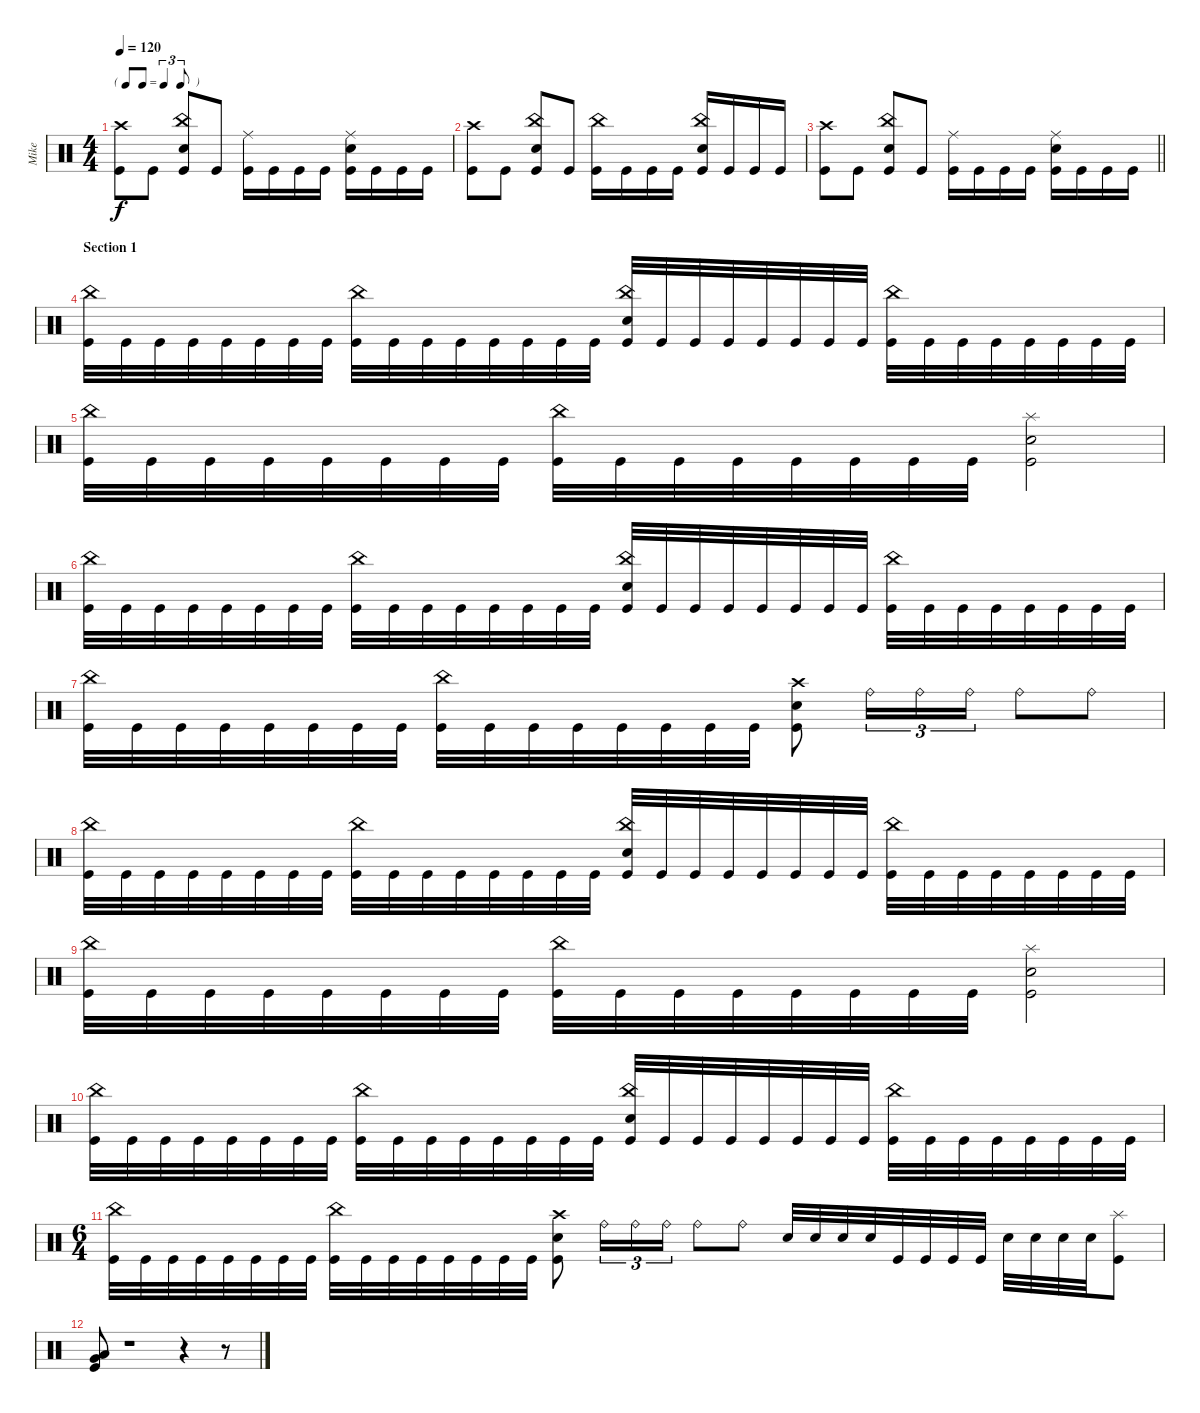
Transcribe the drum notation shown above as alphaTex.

\track ("Mike" "Mike") {instrument percussion}
\staff {score}
\articulation defaults
\ts (4 4)
\tf triplet8th
\tempo 120
\clef neutral
\ks c
("Crash high (hit)" "Kick (hit)").8{dy f} "Kick (hit)".8 ("China (hit)" "Snare (hit) 2" "Kick (hit)").8 "Kick (hit)".8 ("Ride (middle)" "Kick (hit)").16 "Kick (hit)".16 "Kick (hit)".16 "Kick (hit)".16 ("Ride (middle)" "Snare (hit) 2" "Kick (hit)").16 "Kick (hit)".16 "Kick (hit)".16 "Kick (hit)".16 |
("Crash high (hit)" "Kick (hit)").8 "Kick (hit)".8 ("China (hit)" "Snare (hit) 2" "Kick (hit)").8 "Kick (hit)".8 ("China (hit)" "Kick (hit)").16 "Kick (hit)".16 "Kick (hit)".16 "Kick (hit)".16 ("China (hit)" "Snare (hit) 2" "Kick (hit)").16 "Kick (hit)".16 "Kick (hit)".16 "Kick (hit)".16 |
\barLineRight lightlight
("Crash high (hit)" "Kick (hit)").8 "Kick (hit)".8 ("China (hit)" "Snare (hit) 2" "Kick (hit)").8 "Kick (hit)".8 ("Ride (middle)" "Kick (hit)").16 "Kick (hit)".16 "Kick (hit)".16 "Kick (hit)".16 ("Ride (middle)" "Snare (hit) 2" "Kick (hit)").16 "Kick (hit)".16 "Kick (hit)".16 "Kick (hit)".16 |
\section ("" "Section 1")
("China (hit)" "Kick (hit)").32 "Kick (hit)".32 "Kick (hit)".32 "Kick (hit)".32 "Kick (hit)".32 "Kick (hit)".32 "Kick (hit)".32 "Kick (hit)".32 ("China (hit)" "Kick (hit)").32 "Kick (hit)".32 "Kick (hit)".32 "Kick (hit)".32 "Kick (hit)".32 "Kick (hit)".32 "Kick (hit)".32 "Kick (hit)".32 ("China (hit)" "Snare (hit) 2" "Kick (hit)").32 "Kick (hit)".32 "Kick (hit)".32 "Kick (hit)".32 "Kick (hit)".32 "Kick (hit)".32 "Kick (hit)".32 "Kick (hit)".32 ("China (hit)" "Kick (hit)").32 "Kick (hit)".32 "Kick (hit)".32 "Kick (hit)".32 "Kick (hit)".32 "Kick (hit)".32 "Kick (hit)".32 "Kick (hit)".32 |
("China (hit)" "Kick (hit)").32 "Kick (hit)".32 "Kick (hit)".32 "Kick (hit)".32 "Kick (hit)".32 "Kick (hit)".32 "Kick (hit)".32 "Kick (hit)".32 ("China (hit)" "Kick (hit)").32 "Kick (hit)".32 "Kick (hit)".32 "Kick (hit)".32 "Kick (hit)".32 "Kick (hit)".32 "Kick (hit)".32 "Kick (hit)".32 ("Splash (hit)" "Snare (hit) 2" "Kick (hit)").2 |
("China (hit)" "Kick (hit)").32 "Kick (hit)".32 "Kick (hit)".32 "Kick (hit)".32 "Kick (hit)".32 "Kick (hit)".32 "Kick (hit)".32 "Kick (hit)".32 ("China (hit)" "Kick (hit)").32 "Kick (hit)".32 "Kick (hit)".32 "Kick (hit)".32 "Kick (hit)".32 "Kick (hit)".32 "Kick (hit)".32 "Kick (hit)".32 ("China (hit)" "Snare (hit) 2" "Kick (hit)").32 "Kick (hit)".32 "Kick (hit)".32 "Kick (hit)".32 "Kick (hit)".32 "Kick (hit)".32 "Kick (hit)".32 "Kick (hit)".32 ("China (hit)" "Kick (hit)").32 "Kick (hit)".32 "Kick (hit)".32 "Kick (hit)".32 "Kick (hit)".32 "Kick (hit)".32 "Kick (hit)".32 "Kick (hit)".32 |
("China (hit)" "Kick (hit)").32 "Kick (hit)".32 "Kick (hit)".32 "Kick (hit)".32 "Kick (hit)".32 "Kick (hit)".32 "Kick (hit)".32 "Kick (hit)".32 ("China (hit)" "Kick (hit)").32 "Kick (hit)".32 "Kick (hit)".32 "Kick (hit)".32 "Kick (hit)".32 "Kick (hit)".32 "Kick (hit)".32 "Kick (hit)".32 ("Crash high (hit)" "Snare (hit) 2" "Kick (hit)").8 "Ride (bell)".16{tu (3 2)} "Ride (bell)".16{tu (3 2)} "Ride (bell)".16{tu (3 2)} "Ride (bell)".8 "Ride (bell)".8 |
("China (hit)" "Kick (hit)").32 "Kick (hit)".32 "Kick (hit)".32 "Kick (hit)".32 "Kick (hit)".32 "Kick (hit)".32 "Kick (hit)".32 "Kick (hit)".32 ("China (hit)" "Kick (hit)").32 "Kick (hit)".32 "Kick (hit)".32 "Kick (hit)".32 "Kick (hit)".32 "Kick (hit)".32 "Kick (hit)".32 "Kick (hit)".32 ("China (hit)" "Snare (hit) 2" "Kick (hit)").32 "Kick (hit)".32 "Kick (hit)".32 "Kick (hit)".32 "Kick (hit)".32 "Kick (hit)".32 "Kick (hit)".32 "Kick (hit)".32 ("China (hit)" "Kick (hit)").32 "Kick (hit)".32 "Kick (hit)".32 "Kick (hit)".32 "Kick (hit)".32 "Kick (hit)".32 "Kick (hit)".32 "Kick (hit)".32 |
("China (hit)" "Kick (hit)").32 "Kick (hit)".32 "Kick (hit)".32 "Kick (hit)".32 "Kick (hit)".32 "Kick (hit)".32 "Kick (hit)".32 "Kick (hit)".32 ("China (hit)" "Kick (hit)").32 "Kick (hit)".32 "Kick (hit)".32 "Kick (hit)".32 "Kick (hit)".32 "Kick (hit)".32 "Kick (hit)".32 "Kick (hit)".32 ("Splash (hit)" "Snare (hit) 2" "Kick (hit)").2 |
("China (hit)" "Kick (hit)").32 "Kick (hit)".32 "Kick (hit)".32 "Kick (hit)".32 "Kick (hit)".32 "Kick (hit)".32 "Kick (hit)".32 "Kick (hit)".32 ("China (hit)" "Kick (hit)").32 "Kick (hit)".32 "Kick (hit)".32 "Kick (hit)".32 "Kick (hit)".32 "Kick (hit)".32 "Kick (hit)".32 "Kick (hit)".32 ("China (hit)" "Snare (hit) 2" "Kick (hit)").32 "Kick (hit)".32 "Kick (hit)".32 "Kick (hit)".32 "Kick (hit)".32 "Kick (hit)".32 "Kick (hit)".32 "Kick (hit)".32 ("China (hit)" "Kick (hit)").32 "Kick (hit)".32 "Kick (hit)".32 "Kick (hit)".32 "Kick (hit)".32 "Kick (hit)".32 "Kick (hit)".32 "Kick (hit)".32 |
\ts (6 4)
("China (hit)" "Kick (hit)").32 "Kick (hit)".32 "Kick (hit)".32 "Kick (hit)".32 "Kick (hit)".32 "Kick (hit)".32 "Kick (hit)".32 "Kick (hit)".32 ("China (hit)" "Kick (hit)").32 "Kick (hit)".32 "Kick (hit)".32 "Kick (hit)".32 "Kick (hit)".32 "Kick (hit)".32 "Kick (hit)".32 "Kick (hit)".32 ("Crash high (hit)" "Snare (hit) 2" "Kick (hit)").8 "Ride (bell)".16{tu (3 2)} "Ride (bell)".16{tu (3 2)} "Ride (bell)".16{tu (3 2)} "Ride (bell)".8 "Ride (bell)".8 "Snare (hit) 2".32 "Snare (hit) 2".32 "Snare (hit) 2".32 "Snare (hit) 2".32 "Kick (hit)".32 "Kick (hit)".32 "Kick (hit)".32 "Kick (hit)".32 "Snare (hit) 2".32 "Snare (hit) 2".32 "Snare (hit) 2".32 "Snare (hit) 2".32 ("Splash (hit)" "Kick (hit)").8 |
("Very Low Tom (hit)" "Low Tom (hit)" "Kick (hit)").8 r.1 r.4 r.8
